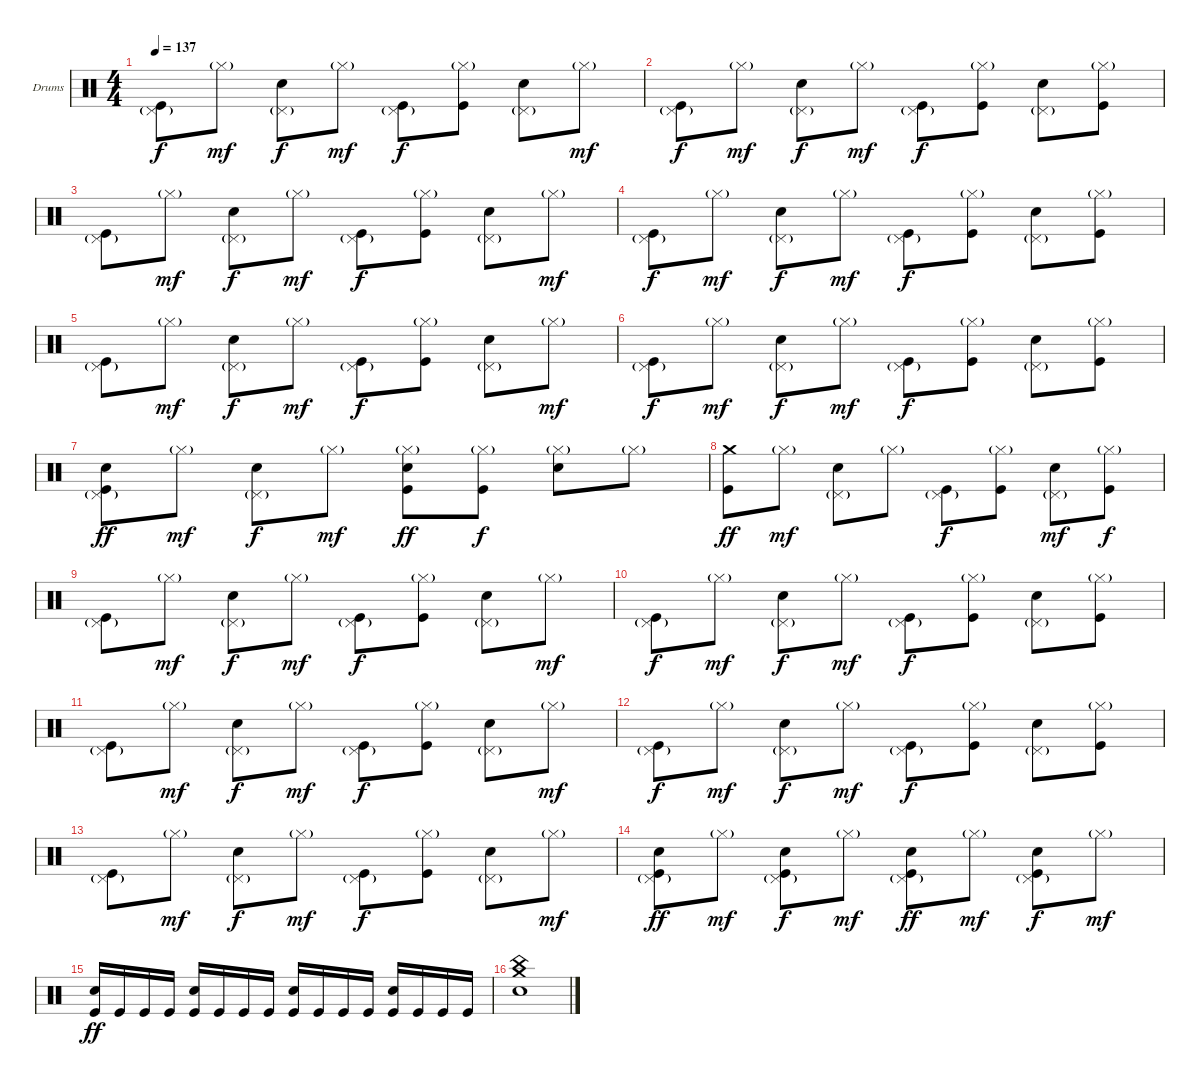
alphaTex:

\bracketExtendMode groupsimilarinstruments
\firstSystemTrackNameOrientation horizontal
\otherSystemsTrackNameOrientation horizontal
\track ("Drumkit (Christoph)" "Drums") {instrument percussion}
\staff {score}
\articulation defaults
\ts (4 4)
\tempo 137
\clef neutral
\ks c
("Pedal Hi-Hat (hit)"{g} "Kick (hit)").8{dy f} "Hi-Hat (closed)"{g}.8{dy mf} ("Pedal Hi-Hat (hit)"{g} "Snare (hit) 2").8{dy f} "Hi-Hat (closed)"{g}.8{dy mf} ("Pedal Hi-Hat (hit)"{g} "Kick (hit)").8{dy f} ("Hi-Hat (closed)"{g} "Kick (hit)").8 ("Pedal Hi-Hat (hit)"{g} "Snare (hit) 2").8 "Hi-Hat (closed)"{g}.8{dy mf} |
("Pedal Hi-Hat (hit)"{g} "Kick (hit)").8{dy f} "Hi-Hat (closed)"{g}.8{dy mf} ("Pedal Hi-Hat (hit)"{g} "Snare (hit) 2").8{dy f} "Hi-Hat (closed)"{g}.8{dy mf} ("Pedal Hi-Hat (hit)"{g} "Kick (hit)").8{dy f} ("Hi-Hat (closed)"{g} "Kick (hit)").8 ("Pedal Hi-Hat (hit)"{g} "Snare (hit) 2").8 ("Hi-Hat (closed)"{g} "Kick (hit)").8 |
("Pedal Hi-Hat (hit)"{g} "Kick (hit)").8 "Hi-Hat (closed)"{g}.8{dy mf} ("Pedal Hi-Hat (hit)"{g} "Snare (hit) 2").8{dy f} "Hi-Hat (closed)"{g}.8{dy mf} ("Pedal Hi-Hat (hit)"{g} "Kick (hit)").8{dy f} ("Hi-Hat (closed)"{g} "Kick (hit)").8 ("Pedal Hi-Hat (hit)"{g} "Snare (hit) 2").8 "Hi-Hat (closed)"{g}.8{dy mf} |
("Pedal Hi-Hat (hit)"{g} "Kick (hit)").8{dy f} "Hi-Hat (closed)"{g}.8{dy mf} ("Pedal Hi-Hat (hit)"{g} "Snare (hit) 2").8{dy f} "Hi-Hat (closed)"{g}.8{dy mf} ("Pedal Hi-Hat (hit)"{g} "Kick (hit)").8{dy f} ("Hi-Hat (closed)"{g} "Kick (hit)").8 ("Pedal Hi-Hat (hit)"{g} "Snare (hit) 2").8 ("Hi-Hat (closed)"{g} "Kick (hit)").8 |
("Pedal Hi-Hat (hit)"{g} "Kick (hit)").8 "Hi-Hat (closed)"{g}.8{dy mf} ("Pedal Hi-Hat (hit)"{g} "Snare (hit) 2").8{dy f} "Hi-Hat (closed)"{g}.8{dy mf} ("Pedal Hi-Hat (hit)"{g} "Kick (hit)").8{dy f} ("Hi-Hat (closed)"{g} "Kick (hit)").8 ("Pedal Hi-Hat (hit)"{g} "Snare (hit) 2").8 "Hi-Hat (closed)"{g}.8{dy mf} |
("Pedal Hi-Hat (hit)"{g} "Kick (hit)").8{dy f} "Hi-Hat (closed)"{g}.8{dy mf} ("Pedal Hi-Hat (hit)"{g} "Snare (hit) 2").8{dy f} "Hi-Hat (closed)"{g}.8{dy mf} ("Pedal Hi-Hat (hit)"{g} "Kick (hit)").8{dy f} ("Hi-Hat (closed)"{g} "Kick (hit)").8 ("Pedal Hi-Hat (hit)"{g} "Snare (hit) 2").8 ("Hi-Hat (closed)"{g} "Kick (hit)").8 |
("Pedal Hi-Hat (hit)"{g} "Snare (hit) 2" "Kick (hit)").8{dy ff} "Hi-Hat (closed)"{g}.8{dy mf} ("Pedal Hi-Hat (hit)"{g} "Snare (hit) 2").8{dy f} "Hi-Hat (closed)"{g}.8{dy mf} ("Hi-Hat (closed)"{g} "Snare (hit) 2" "Kick (hit)").8{dy ff} ("Hi-Hat (closed)"{g} "Kick (hit)").8{dy f} ("Hi-Hat (closed)"{g} "Snare (hit) 2").8 "Hi-Hat (closed)"{g}.8 |
("Crash medium (hit)" "Kick (hit)").8{dy ff} "Hi-Hat (closed)"{g}.8{dy mf} ("Pedal Hi-Hat (hit)"{g} "Snare (hit) 2").8 "Hi-Hat (closed)"{g}.8 ("Pedal Hi-Hat (hit)"{g} "Kick (hit)").8{dy f} ("Hi-Hat (closed)"{g} "Kick (hit)").8 ("Pedal Hi-Hat (hit)"{g} "Snare (hit) 2").8{dy mf} ("Hi-Hat (closed)"{g} "Kick (hit)").8{dy f} |
("Pedal Hi-Hat (hit)"{g} "Kick (hit)").8 "Hi-Hat (closed)"{g}.8{dy mf} ("Pedal Hi-Hat (hit)"{g} "Snare (hit) 2").8{dy f} "Hi-Hat (closed)"{g}.8{dy mf} ("Pedal Hi-Hat (hit)"{g} "Kick (hit)").8{dy f} ("Hi-Hat (closed)"{g} "Kick (hit)").8 ("Pedal Hi-Hat (hit)"{g} "Snare (hit) 2").8 "Hi-Hat (closed)"{g}.8{dy mf} |
("Pedal Hi-Hat (hit)"{g} "Kick (hit)").8{dy f} "Hi-Hat (closed)"{g}.8{dy mf} ("Pedal Hi-Hat (hit)"{g} "Snare (hit) 2").8{dy f} "Hi-Hat (closed)"{g}.8{dy mf} ("Pedal Hi-Hat (hit)"{g} "Kick (hit)").8{dy f} ("Hi-Hat (closed)"{g} "Kick (hit)").8 ("Pedal Hi-Hat (hit)"{g} "Snare (hit) 2").8 ("Hi-Hat (closed)"{g} "Kick (hit)").8 |
("Pedal Hi-Hat (hit)"{g} "Kick (hit)").8 "Hi-Hat (closed)"{g}.8{dy mf} ("Pedal Hi-Hat (hit)"{g} "Snare (hit) 2").8{dy f} "Hi-Hat (closed)"{g}.8{dy mf} ("Pedal Hi-Hat (hit)"{g} "Kick (hit)").8{dy f} ("Hi-Hat (closed)"{g} "Kick (hit)").8 ("Pedal Hi-Hat (hit)"{g} "Snare (hit) 2").8 "Hi-Hat (closed)"{g}.8{dy mf} |
("Pedal Hi-Hat (hit)"{g} "Kick (hit)").8{dy f} "Hi-Hat (closed)"{g}.8{dy mf} ("Pedal Hi-Hat (hit)"{g} "Snare (hit) 2").8{dy f} "Hi-Hat (closed)"{g}.8{dy mf} ("Pedal Hi-Hat (hit)"{g} "Kick (hit)").8{dy f} ("Hi-Hat (closed)"{g} "Kick (hit)").8 ("Pedal Hi-Hat (hit)"{g} "Snare (hit) 2").8 ("Hi-Hat (closed)"{g} "Kick (hit)").8 |
("Pedal Hi-Hat (hit)"{g} "Kick (hit)").8 "Hi-Hat (closed)"{g}.8{dy mf} ("Pedal Hi-Hat (hit)"{g} "Snare (hit) 2").8{dy f} "Hi-Hat (closed)"{g}.8{dy mf} ("Pedal Hi-Hat (hit)"{g} "Kick (hit)").8{dy f} ("Hi-Hat (closed)"{g} "Kick (hit)").8 ("Pedal Hi-Hat (hit)"{g} "Snare (hit) 2").8 "Hi-Hat (closed)"{g}.8{dy mf} |
("Pedal Hi-Hat (hit)"{g} "Snare (hit) 2" "Kick (hit)").8{dy ff} "Hi-Hat (closed)"{g}.8{dy mf} ("Pedal Hi-Hat (hit)"{g} "Snare (hit) 2" "Kick (hit)").8{dy f} "Hi-Hat (closed)"{g}.8{dy mf} ("Pedal Hi-Hat (hit)"{g} "Snare (hit) 2" "Kick (hit)").8{dy ff} "Hi-Hat (closed)"{g}.8{dy mf} ("Pedal Hi-Hat (hit)"{g} "Snare (hit) 2" "Kick (hit)").8{dy f} "Hi-Hat (closed)"{g}.8{dy mf} |
("Snare (hit) 2" "Kick (hit)").16{dy ff} "Kick (hit)".16 "Kick (hit)".16 "Kick (hit)".16 ("Snare (hit) 2" "Kick (hit)").16 "Kick (hit)".16 "Kick (hit)".16 "Kick (hit)".16 ("Snare (hit) 2" "Kick (hit)").16 "Kick (hit)".16 "Kick (hit)".16 "Kick (hit)".16 ("Snare (hit) 2" "Kick (hit)").16 "Kick (hit)".16 "Kick (hit)".16 "Kick (hit)".16 |
("Crash medium (hit)" "China (hit)" "Snare (hit) 2").1
